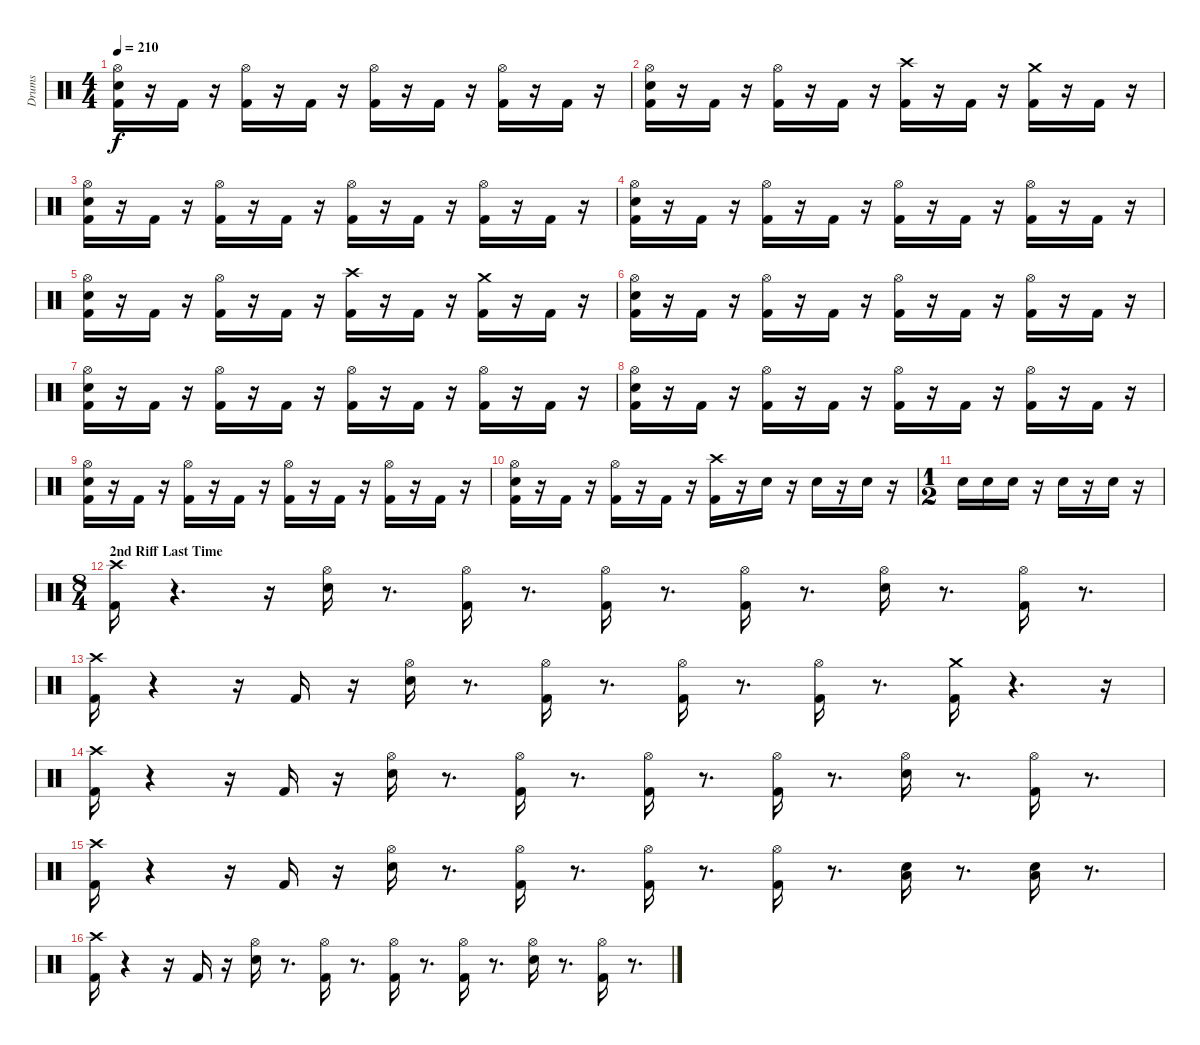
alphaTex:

\track ("Drums" "Drums") {instrument percussion}
\staff {score}
\articulation defaults
\ts (4 4)
\tempo 210
\clef neutral
\ks c
("Hi-Hat (open)" "Kick (hit) 2" "Snare (hit) 2").16{dy f} r.16 "Kick (hit) 2".16 r.16 ("Kick (hit) 2" "Hi-Hat (open)").16 r.16 "Kick (hit) 2".16 r.16 ("Kick (hit) 2" "Hi-Hat (open)").16 r.16 "Kick (hit) 2".16 r.16 ("Hi-Hat (open)" "Kick (hit) 2").16 r.16 "Kick (hit) 2".16 r.16 |
("Hi-Hat (open)" "Kick (hit) 2" "Snare (hit) 2").16 r.16 "Kick (hit) 2".16 r.16 ("Hi-Hat (open)" "Kick (hit) 2").16 r.16 "Kick (hit) 2".16 r.16 ("Crash high (hit)" "Kick (hit) 2").16 r.16 "Kick (hit) 2".16 r.16 ("Kick (hit) 2" "Crash medium (hit)").16 r.16 "Kick (hit) 2".16 r.16 |
("Kick (hit) 2" "Snare (hit) 2" "Hi-Hat (open)").16 r.16 "Kick (hit) 2".16 r.16 ("Hi-Hat (open)" "Kick (hit) 2").16 r.16 "Kick (hit) 2".16 r.16 ("Hi-Hat (open)" "Kick (hit) 2").16 r.16 "Kick (hit) 2".16 r.16 ("Kick (hit) 2" "Hi-Hat (open)").16 r.16 "Kick (hit) 2".16 r.16 |
("Kick (hit) 2" "Snare (hit) 2" "Hi-Hat (open)").16 r.16 "Kick (hit) 2".16 r.16 ("Hi-Hat (open)" "Kick (hit) 2").16 r.16 "Kick (hit) 2".16 r.16 ("Kick (hit) 2" "Hi-Hat (open)").16 r.16 "Kick (hit) 2".16 r.16 ("Hi-Hat (open)" "Kick (hit) 2").16 r.16 "Kick (hit) 2".16 r.16 |
("Hi-Hat (open)" "Snare (hit) 2" "Kick (hit) 2").16 r.16 "Kick (hit) 2".16 r.16 ("Kick (hit) 2" "Hi-Hat (open)").16 r.16 "Kick (hit) 2".16 r.16 ("Crash high (hit)" "Kick (hit) 2").16 r.16 "Kick (hit) 2".16 r.16 ("Kick (hit) 2" "Crash medium (hit)").16 r.16 "Kick (hit) 2".16 r.16 |
("Hi-Hat (open)" "Kick (hit) 2" "Snare (hit) 2").16 r.16 "Kick (hit) 2".16 r.16 ("Hi-Hat (open)" "Kick (hit) 2").16 r.16 "Kick (hit) 2".16 r.16 ("Hi-Hat (open)" "Kick (hit) 2").16 r.16 "Kick (hit) 2".16 r.16 ("Kick (hit) 2" "Hi-Hat (open)").16 r.16 "Kick (hit) 2".16 r.16 |
("Hi-Hat (open)" "Snare (hit) 2" "Kick (hit) 2").16 r.16 "Kick (hit) 2".16 r.16 ("Kick (hit) 2" "Hi-Hat (open)").16 r.16 "Kick (hit) 2".16 r.16 ("Kick (hit) 2" "Hi-Hat (open)").16 r.16 "Kick (hit) 2".16 r.16 ("Kick (hit) 2" "Hi-Hat (open)").16 r.16 "Kick (hit) 2".16 r.16 |
("Snare (hit) 2" "Hi-Hat (open)" "Kick (hit) 2").16 r.16 "Kick (hit) 2".16 r.16 ("Kick (hit) 2" "Hi-Hat (open)").16 r.16 "Kick (hit) 2".16 r.16 ("Kick (hit) 2" "Hi-Hat (open)").16 r.16 "Kick (hit) 2".16 r.16 ("Hi-Hat (open)" "Kick (hit) 2").16 r.16 "Kick (hit) 2".16 r.16 |
("Snare (hit) 2" "Kick (hit) 2" "Hi-Hat (open)").16 r.16 "Kick (hit) 2".16 r.16 ("Kick (hit) 2" "Hi-Hat (open)").16 r.16 "Kick (hit) 2".16 r.16 ("Kick (hit) 2" "Hi-Hat (open)").16 r.16 "Kick (hit) 2".16 r.16 ("Kick (hit) 2" "Hi-Hat (open)").16 r.16 "Kick (hit) 2".16 r.16 |
("Hi-Hat (open)" "Snare (hit) 2" "Kick (hit) 2").16 r.16 "Kick (hit) 2".16 r.16 ("Hi-Hat (open)" "Kick (hit) 2").16 r.16 "Kick (hit) 2".16 r.16 ("Crash high (hit)" "Kick (hit) 2").16 r.16 "Snare (hit) 2".16 r.16 "Snare (hit) 2".16 r.16 "Snare (hit) 2".16 r.16 |
\ts (1 2)
"Snare (hit) 2".16 "Snare (hit) 2".16 "Snare (hit) 2".16 r.16 "Snare (hit) 2".16 r.16 "Snare (hit) 2".16 r.16 |
\ts (8 4)
\section ("" "2nd Riff Last Time")
("Kick (hit) 2" "Crash high (hit)").16 r.4{d} r.16 ("Snare (hit) 2" "Hi-Hat (open)").16 r.8{d} ("Hi-Hat (open)" "Kick (hit) 2").16 r.8{d} ("Hi-Hat (open)" "Kick (hit) 2").16 r.8{d} ("Kick (hit) 2" "Hi-Hat (open)").16 r.8{d} ("Snare (hit) 2" "Hi-Hat (open)").16 r.8{d} ("Hi-Hat (open)" "Kick (hit) 2").16 r.8{d} |
("Crash high (hit)" "Kick (hit) 2").16 r.4 r.16 "Kick (hit) 2".16 r.16 ("Hi-Hat (open)" "Snare (hit) 2").16 r.8{d} ("Kick (hit) 2" "Hi-Hat (open)").16 r.8{d} ("Kick (hit) 2" "Hi-Hat (open)").16 r.8{d} ("Hi-Hat (open)" "Kick (hit) 2").16 r.8{d} ("Kick (hit) 2" "Crash medium (hit)").16 r.4{d} r.16 |
("Crash high (hit)" "Kick (hit) 2").16 r.4 r.16 "Kick (hit) 2".16 r.16 ("Snare (hit) 2" "Hi-Hat (open)").16 r.8{d} ("Hi-Hat (open)" "Kick (hit) 2").16 r.8{d} ("Hi-Hat (open)" "Kick (hit) 2").16 r.8{d} ("Hi-Hat (open)" "Kick (hit) 2").16 r.8{d} ("Snare (hit) 2" "Hi-Hat (open)").16 r.8{d} ("Kick (hit) 2" "Hi-Hat (open)").16 r.8{d} |
("Kick (hit) 2" "Crash high (hit)").16 r.4 r.16 "Kick (hit) 2".16 r.16 ("Hi-Hat (open)" "Snare (hit) 2").16 r.8{d} ("Kick (hit) 2" "Hi-Hat (open)").16 r.8{d} ("Hi-Hat (open)" "Kick (hit) 2").16 r.8{d} ("Hi-Hat (open)" "Kick (hit) 2").16 r.8{d} ("Snare (hit) 2" "Low Tom (hit)").16 r.8{d} ("Low Tom (hit)" "Snare (hit) 2").16 r.8{d} |
("Kick (hit) 2" "Crash high (hit)").16 r.4 r.16 "Kick (hit) 2".16 r.16 ("Snare (hit) 2" "Hi-Hat (open)").16 r.8{d} ("Hi-Hat (open)" "Kick (hit) 2").16 r.8{d} ("Hi-Hat (open)" "Kick (hit) 2").16 r.8{d} ("Kick (hit) 2" "Hi-Hat (open)").16 r.8{d} ("Hi-Hat (open)" "Snare (hit) 2").16 r.8{d} ("Hi-Hat (open)" "Kick (hit) 2").16 r.8{d}
